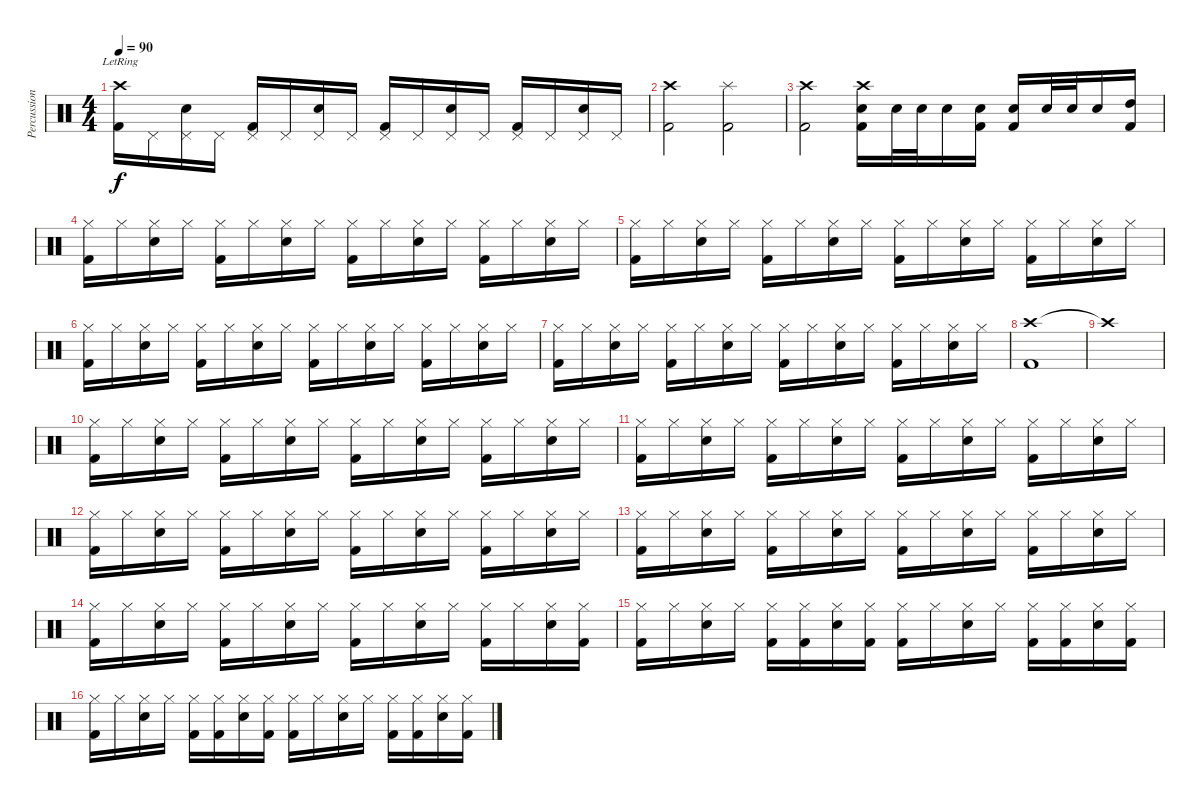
\track ("Percussion" "Percussion") {instrument percussion}
\staff {score}
\articulation defaults
\ts (4 4)
\tempo 90
\clef neutral
\ks c
("Crash high (hit)"{lr} "Kick (hit) 2").16{dy f} "Pedal Hi-Hat (hit)".16 ("Pedal Hi-Hat (hit)" "Snare (hit) 2").16 "Pedal Hi-Hat (hit)".16 ("Pedal Hi-Hat (hit)" "Kick (hit) 2").16 "Pedal Hi-Hat (hit)".16 ("Pedal Hi-Hat (hit)" "Snare (hit) 2").16 "Pedal Hi-Hat (hit)".16 ("Pedal Hi-Hat (hit)" "Kick (hit) 2").16 "Pedal Hi-Hat (hit)".16 ("Pedal Hi-Hat (hit)" "Snare (hit) 2").16 "Pedal Hi-Hat (hit)".16 ("Pedal Hi-Hat (hit)" "Kick (hit) 2").16 "Pedal Hi-Hat (hit)".16 ("Pedal Hi-Hat (hit)" "Snare (hit) 2").16 "Pedal Hi-Hat (hit)".16 |
("Crash high (hit)" "Kick (hit) 2").2 ("Splash (hit)" "Kick (hit) 2").2 |
("Crash high (hit)" "Kick (hit) 2").2 ("Crash high (hit)" "Snare (hit) 2" "Kick (hit) 2").16 "Snare (hit) 2".32 "Snare (hit) 2".32 "Snare (hit) 2".16 ("Snare (hit) 2" "Kick (hit) 2").16 ("Snare (hit) 2" "Kick (hit) 2").16 "Snare (hit) 2".32 "Snare (hit) 2".32 "Snare (hit) 2".16 ("High Tom (hit)" "Kick (hit) 2").16 |
("Hi-Hat (closed)" "Kick (hit) 2").16 "Hi-Hat (closed)".16 ("Hi-Hat (closed)" "Snare (hit) 2").16 "Hi-Hat (closed)".16 ("Hi-Hat (closed)" "Kick (hit) 2").16 "Hi-Hat (closed)".16 ("Hi-Hat (closed)" "Snare (hit) 2").16 "Hi-Hat (closed)".16 ("Hi-Hat (closed)" "Kick (hit) 2").16 "Hi-Hat (closed)".16 ("Hi-Hat (closed)" "Snare (hit) 2").16 "Hi-Hat (closed)".16 ("Hi-Hat (closed)" "Kick (hit) 2").16 "Hi-Hat (closed)".16 ("Hi-Hat (closed)" "Snare (hit) 2").16 "Hi-Hat (closed)".16 |
("Hi-Hat (closed)" "Kick (hit) 2").16 "Hi-Hat (closed)".16 ("Hi-Hat (closed)" "Snare (hit) 2").16 "Hi-Hat (closed)".16 ("Hi-Hat (closed)" "Kick (hit) 2").16 "Hi-Hat (closed)".16 ("Hi-Hat (closed)" "Snare (hit) 2").16 "Hi-Hat (closed)".16 ("Hi-Hat (closed)" "Kick (hit) 2").16 "Hi-Hat (closed)".16 ("Hi-Hat (closed)" "Snare (hit) 2").16 "Hi-Hat (closed)".16 ("Hi-Hat (closed)" "Kick (hit) 2").16 "Hi-Hat (closed)".16 ("Hi-Hat (closed)" "Snare (hit) 2").16 "Hi-Hat (closed)".16 |
("Hi-Hat (closed)" "Kick (hit) 2").16 "Hi-Hat (closed)".16 ("Hi-Hat (closed)" "Snare (hit) 2").16 "Hi-Hat (closed)".16 ("Hi-Hat (closed)" "Kick (hit) 2").16 "Hi-Hat (closed)".16 ("Hi-Hat (closed)" "Snare (hit) 2").16 "Hi-Hat (closed)".16 ("Hi-Hat (closed)" "Kick (hit) 2").16 "Hi-Hat (closed)".16 ("Hi-Hat (closed)" "Snare (hit) 2").16 "Hi-Hat (closed)".16 ("Hi-Hat (closed)" "Kick (hit) 2").16 "Hi-Hat (closed)".16 ("Hi-Hat (closed)" "Snare (hit) 2").16 "Hi-Hat (closed)".16 |
("Hi-Hat (closed)" "Kick (hit) 2").16 "Hi-Hat (closed)".16 ("Hi-Hat (closed)" "Snare (hit) 2").16 "Hi-Hat (closed)".16 ("Hi-Hat (closed)" "Kick (hit) 2").16 "Hi-Hat (closed)".16 ("Hi-Hat (closed)" "Snare (hit) 2").16 "Hi-Hat (closed)".16 ("Hi-Hat (closed)" "Kick (hit) 2").16 "Hi-Hat (closed)".16 ("Hi-Hat (closed)" "Snare (hit) 2").16 "Hi-Hat (closed)".16 ("Hi-Hat (closed)" "Kick (hit) 2").16 "Hi-Hat (closed)".16 ("Hi-Hat (closed)" "Snare (hit) 2").16 "Hi-Hat (closed)".16 |
("Crash high (hit)" "Kick (hit) 2").1 |
"Crash high (hit)"{t}.1 |
("Hi-Hat (closed)" "Kick (hit) 2").16 "Hi-Hat (closed)".16 ("Hi-Hat (closed)" "Snare (hit) 2").16 "Hi-Hat (closed)".16 ("Hi-Hat (closed)" "Kick (hit) 2").16 "Hi-Hat (closed)".16 ("Hi-Hat (closed)" "Snare (hit) 2").16 "Hi-Hat (closed)".16 ("Hi-Hat (closed)" "Kick (hit) 2").16 "Hi-Hat (closed)".16 ("Hi-Hat (closed)" "Snare (hit) 2").16 "Hi-Hat (closed)".16 ("Hi-Hat (closed)" "Kick (hit) 2").16 "Hi-Hat (closed)".16 ("Hi-Hat (closed)" "Snare (hit) 2").16 "Hi-Hat (closed)".16 |
("Hi-Hat (closed)" "Kick (hit) 2").16 "Hi-Hat (closed)".16 ("Hi-Hat (closed)" "Snare (hit) 2").16 "Hi-Hat (closed)".16 ("Hi-Hat (closed)" "Kick (hit) 2").16 "Hi-Hat (closed)".16 ("Hi-Hat (closed)" "Snare (hit) 2").16 "Hi-Hat (closed)".16 ("Hi-Hat (closed)" "Kick (hit) 2").16 "Hi-Hat (closed)".16 ("Hi-Hat (closed)" "Snare (hit) 2").16 "Hi-Hat (closed)".16 ("Hi-Hat (closed)" "Kick (hit) 2").16 "Hi-Hat (closed)".16 ("Hi-Hat (closed)" "Snare (hit) 2").16 "Hi-Hat (closed)".16 |
("Hi-Hat (closed)" "Kick (hit) 2").16 "Hi-Hat (closed)".16 ("Hi-Hat (closed)" "Snare (hit) 2").16 "Hi-Hat (closed)".16 ("Hi-Hat (closed)" "Kick (hit) 2").16 "Hi-Hat (closed)".16 ("Hi-Hat (closed)" "Snare (hit) 2").16 "Hi-Hat (closed)".16 ("Hi-Hat (closed)" "Kick (hit) 2").16 "Hi-Hat (closed)".16 ("Hi-Hat (closed)" "Snare (hit) 2").16 "Hi-Hat (closed)".16 ("Hi-Hat (closed)" "Kick (hit) 2").16 "Hi-Hat (closed)".16 ("Hi-Hat (closed)" "Snare (hit) 2").16 "Hi-Hat (closed)".16 |
("Hi-Hat (closed)" "Kick (hit) 2").16 "Hi-Hat (closed)".16 ("Hi-Hat (closed)" "Snare (hit) 2").16 "Hi-Hat (closed)".16 ("Hi-Hat (closed)" "Kick (hit) 2").16 "Hi-Hat (closed)".16 ("Hi-Hat (closed)" "Snare (hit) 2").16 "Hi-Hat (closed)".16 ("Hi-Hat (closed)" "Kick (hit) 2").16 "Hi-Hat (closed)".16 ("Hi-Hat (closed)" "Snare (hit) 2").16 "Hi-Hat (closed)".16 ("Hi-Hat (closed)" "Kick (hit) 2").16 "Hi-Hat (closed)".16 ("Hi-Hat (closed)" "Snare (hit) 2").16 "Hi-Hat (closed)".16 |
("Hi-Hat (closed)" "Kick (hit) 2").16 "Hi-Hat (closed)".16 ("Hi-Hat (closed)" "Snare (hit) 2").16 "Hi-Hat (closed)".16 ("Hi-Hat (closed)" "Kick (hit) 2").16 "Hi-Hat (closed)".16 ("Hi-Hat (closed)" "Snare (hit) 2").16 "Hi-Hat (closed)".16 ("Hi-Hat (closed)" "Kick (hit) 2").16 "Hi-Hat (closed)".16 ("Hi-Hat (closed)" "Snare (hit) 2").16 "Hi-Hat (closed)".16 ("Hi-Hat (closed)" "Kick (hit) 2").16 "Hi-Hat (closed)".16 ("Hi-Hat (closed)" "Snare (hit) 2").16 ("Hi-Hat (closed)" "Kick (hit) 2").16 |
("Hi-Hat (closed)" "Kick (hit) 2").16 "Hi-Hat (closed)".16 ("Hi-Hat (closed)" "Snare (hit) 2").16 "Hi-Hat (closed)".16 ("Hi-Hat (closed)" "Kick (hit) 2").16 ("Hi-Hat (closed)" "Kick (hit) 2").16 ("Hi-Hat (closed)" "Snare (hit) 2").16 ("Hi-Hat (closed)" "Kick (hit) 2").16 ("Hi-Hat (closed)" "Kick (hit) 2").16 "Hi-Hat (closed)".16 ("Hi-Hat (closed)" "Snare (hit) 2").16 "Hi-Hat (closed)".16 ("Hi-Hat (closed)" "Kick (hit) 2").16 ("Hi-Hat (closed)" "Kick (hit) 2").16 ("Hi-Hat (closed)" "Snare (hit) 2").16 ("Hi-Hat (closed)" "Kick (hit) 2").16 |
("Hi-Hat (closed)" "Kick (hit) 2").16 "Hi-Hat (closed)".16 ("Hi-Hat (closed)" "Snare (hit) 2").16 "Hi-Hat (closed)".16 ("Hi-Hat (closed)" "Kick (hit) 2").16 ("Hi-Hat (closed)" "Kick (hit) 2").16 ("Hi-Hat (closed)" "Snare (hit) 2").16 ("Hi-Hat (closed)" "Kick (hit) 2").16 ("Hi-Hat (closed)" "Kick (hit) 2").16 "Hi-Hat (closed)".16 ("Hi-Hat (closed)" "Snare (hit) 2").16 "Hi-Hat (closed)".16 ("Hi-Hat (closed)" "Kick (hit) 2").16 ("Hi-Hat (closed)" "Kick (hit) 2").16 ("Hi-Hat (closed)" "Snare (hit) 2").16 ("Hi-Hat (closed)" "Kick (hit) 2").16
